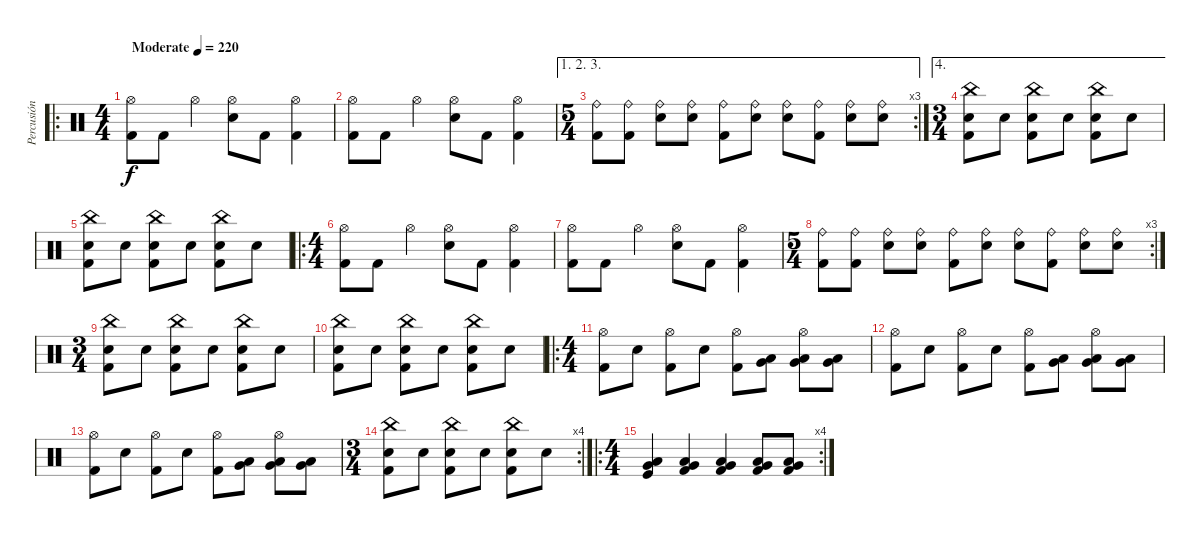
\track ("Percusión" "Percusión") {instrument percussion}
\staff {score}
\articulation defaults
\ro
\ts (4 4)
\tempo (220 "Moderate")
\clef neutral
\ks c
("Hi-Hat (open)" "Kick (hit) 2").8{dy f} "Kick (hit) 2".8 "Hi-Hat (open)".4 ("Hi-Hat (open)" "Snare (hit) 2").8 "Kick (hit) 2".8 ("Hi-Hat (open)" "Kick (hit) 2").4 |
("Hi-Hat (open)" "Kick (hit) 2").8 "Kick (hit) 2".8 "Hi-Hat (open)".4 ("Hi-Hat (open)" "Snare (hit) 2").8 "Kick (hit) 2".8 ("Hi-Hat (open)" "Kick (hit) 2").4 |
\ae (1 2 3)
\rc 3
\ts (5 4)
("Ride (bell)" "Kick (hit) 2").8 ("Ride (bell)" "Kick (hit) 2").8 ("Ride (bell)" "Snare (hit) 2").8 ("Ride (bell)" "Snare (hit) 2").8 ("Ride (bell)" "Kick (hit) 2").8 ("Ride (bell)" "Snare (hit) 2").8 ("Ride (bell)" "Snare (hit) 2").8 ("Ride (bell)" "Kick (hit) 2").8 ("Ride (bell)" "Snare (hit) 2").8 ("Ride (bell)" "Snare (hit) 2").8 |
\ae 4
\ts (3 4)
("China (hit)" "Snare (hit) 2" "Kick (hit) 2").8 "Snare (hit) 2".8 ("China (hit)" "Snare (hit) 2" "Kick (hit) 2").8 "Snare (hit) 2".8 ("China (hit)" "Snare (hit) 2" "Kick (hit) 2").8 "Snare (hit) 2".8 |
("China (hit)" "Snare (hit) 2" "Kick (hit) 2").8 "Snare (hit) 2".8 ("China (hit)" "Snare (hit) 2" "Kick (hit) 2").8 "Snare (hit) 2".8 ("China (hit)" "Snare (hit) 2" "Kick (hit) 2").8 "Snare (hit) 2".8 |
\ro
\ts (4 4)
("Hi-Hat (open)" "Kick (hit) 2").8 "Kick (hit) 2".8 "Hi-Hat (open)".4 ("Hi-Hat (open)" "Snare (hit) 2").8 "Kick (hit) 2".8 ("Hi-Hat (open)" "Kick (hit) 2").4 |
("Hi-Hat (open)" "Kick (hit) 2").8 "Kick (hit) 2".8 "Hi-Hat (open)".4 ("Hi-Hat (open)" "Snare (hit) 2").8 "Kick (hit) 2".8 ("Hi-Hat (open)" "Kick (hit) 2").4 |
\rc 3
\ts (5 4)
("Ride (bell)" "Kick (hit) 2").8 ("Ride (bell)" "Kick (hit) 2").8 ("Ride (bell)" "Snare (hit) 2").8 ("Ride (bell)" "Snare (hit) 2").8 ("Ride (bell)" "Kick (hit) 2").8 ("Ride (bell)" "Snare (hit) 2").8 ("Ride (bell)" "Snare (hit) 2").8 ("Ride (bell)" "Kick (hit) 2").8 ("Ride (bell)" "Snare (hit) 2").8 ("Ride (bell)" "Snare (hit) 2").8 |
\ts (3 4)
("China (hit)" "Snare (hit) 2" "Kick (hit) 2").8 "Snare (hit) 2".8 ("China (hit)" "Snare (hit) 2" "Kick (hit) 2").8 "Snare (hit) 2".8 ("China (hit)" "Snare (hit) 2" "Kick (hit) 2").8 "Snare (hit) 2".8 |
("China (hit)" "Snare (hit) 2" "Kick (hit) 2").8 "Snare (hit) 2".8 ("China (hit)" "Snare (hit) 2" "Kick (hit) 2").8 "Snare (hit) 2".8 ("China (hit)" "Snare (hit) 2" "Kick (hit) 2").8 "Snare (hit) 2".8 |
\ro
\ts (4 4)
("Hi-Hat (open)" "Kick (hit) 2").8 "Snare (hit) 2".8 ("Hi-Hat (open)" "Kick (hit) 2").8 "Snare (hit) 2".8 ("Hi-Hat (open)" "Kick (hit) 2").8 ("Very Low Tom (hit)" "Low Floor Tom (hit)").8 ("Hi-Hat (open)" "Very Low Tom (hit)" "Low Floor Tom (hit)").8 ("Very Low Tom (hit)" "Low Floor Tom (hit)").8 |
("Hi-Hat (open)" "Kick (hit) 2").8 "Snare (hit) 2".8 ("Hi-Hat (open)" "Kick (hit) 2").8 "Snare (hit) 2".8 ("Hi-Hat (open)" "Kick (hit) 2").8 ("Very Low Tom (hit)" "Low Floor Tom (hit)").8 ("Hi-Hat (open)" "Very Low Tom (hit)" "Low Floor Tom (hit)").8 ("Very Low Tom (hit)" "Low Floor Tom (hit)").8 |
("Hi-Hat (open)" "Kick (hit) 2").8 "Snare (hit) 2".8 ("Hi-Hat (open)" "Kick (hit) 2").8 "Snare (hit) 2".8 ("Hi-Hat (open)" "Kick (hit) 2").8 ("Very Low Tom (hit)" "Low Floor Tom (hit)").8 ("Hi-Hat (open)" "Very Low Tom (hit)" "Low Floor Tom (hit)").8 ("Very Low Tom (hit)" "Low Floor Tom (hit)").8 |
\rc 4
\ts (3 4)
("China (hit)" "Snare (hit) 2" "Kick (hit) 2").8 "Snare (hit) 2".8 ("China (hit)" "Snare (hit) 2" "Kick (hit) 2").8 "Snare (hit) 2".8 ("China (hit)" "Snare (hit) 2" "Kick (hit) 2").8 "Snare (hit) 2".8 |
\ro
\rc 4
\ts (4 4)
("Very Low Tom (hit)" "Low Floor Tom (hit)" "Kick (hit)").4 ("Very Low Tom (hit)" "Low Floor Tom (hit)" "Kick (hit) 2").4 ("Very Low Tom (hit)" "Low Floor Tom (hit)" "Kick (hit) 2").4 ("Very Low Tom (hit)" "Low Floor Tom (hit)" "Kick (hit) 2").8 ("Very Low Tom (hit)" "Low Floor Tom (hit)" "Kick (hit) 2").8
